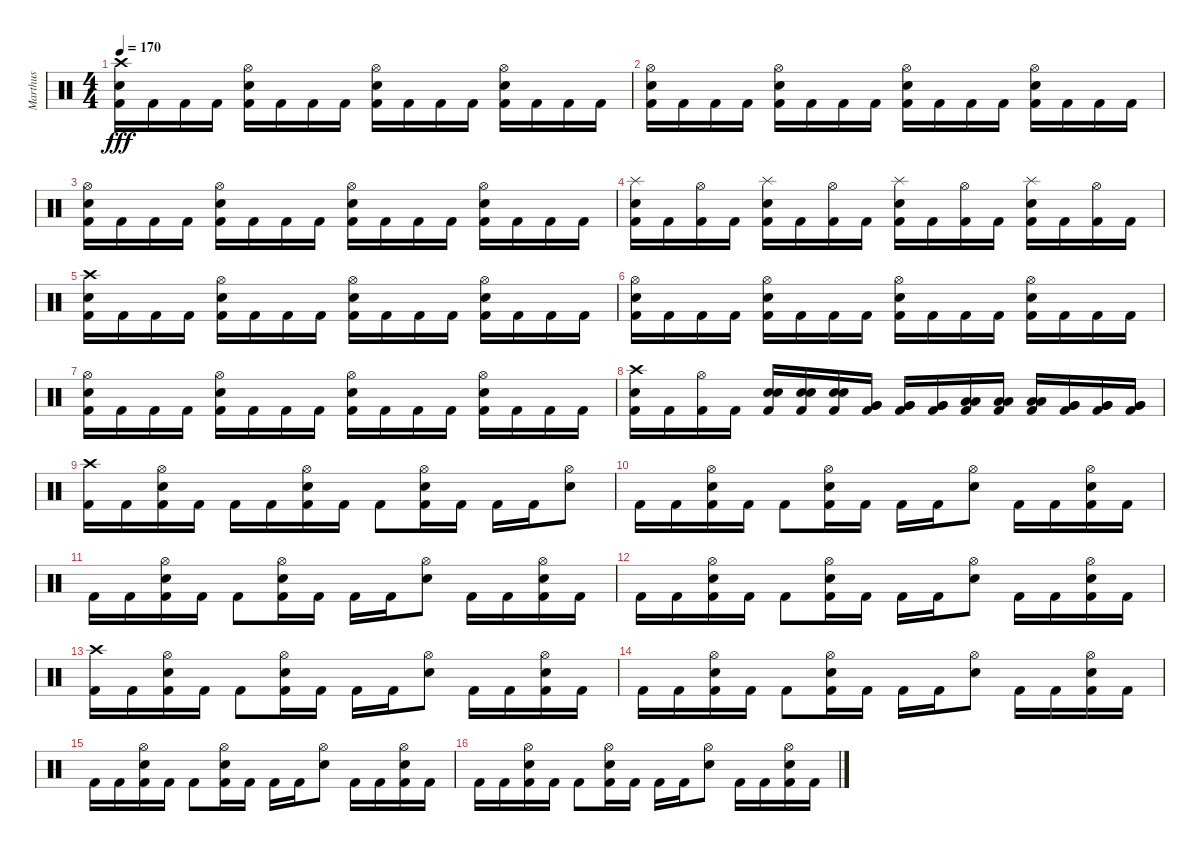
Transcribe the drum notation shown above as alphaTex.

\track ("Marthus" "Marthus") {instrument percussion}
\staff {score}
\articulation defaults
\ts (4 4)
\tempo 170
\clef neutral
\ks c
("Crash high (hit)" "Electric Snare (hit)" "Kick (hit) 2").16{dy fff} "Kick (hit) 2".16 "Kick (hit) 2".16 "Kick (hit) 2".16 ("Hi-Hat (open)" "Electric Snare (hit)" "Kick (hit) 2").16 "Kick (hit) 2".16 "Kick (hit) 2".16 "Kick (hit) 2".16 ("Hi-Hat (open)" "Electric Snare (hit)" "Kick (hit) 2").16 "Kick (hit) 2".16 "Kick (hit) 2".16 "Kick (hit) 2".16 ("Hi-Hat (open)" "Electric Snare (hit)" "Kick (hit) 2").16 "Kick (hit) 2".16 "Kick (hit) 2".16 "Kick (hit) 2".16 |
("Hi-Hat (open)" "Electric Snare (hit)" "Kick (hit) 2").16 "Kick (hit) 2".16 "Kick (hit) 2".16 "Kick (hit) 2".16 ("Hi-Hat (open)" "Electric Snare (hit)" "Kick (hit) 2").16 "Kick (hit) 2".16 "Kick (hit) 2".16 "Kick (hit) 2".16 ("Hi-Hat (open)" "Electric Snare (hit)" "Kick (hit) 2").16 "Kick (hit) 2".16 "Kick (hit) 2".16 "Kick (hit) 2".16 ("Hi-Hat (open)" "Electric Snare (hit)" "Kick (hit) 2").16 "Kick (hit) 2".16 "Kick (hit) 2".16 "Kick (hit) 2".16 |
("Hi-Hat (open)" "Electric Snare (hit)" "Kick (hit) 2").16 "Kick (hit) 2".16 "Kick (hit) 2".16 "Kick (hit) 2".16 ("Hi-Hat (open)" "Electric Snare (hit)" "Kick (hit) 2").16 "Kick (hit) 2".16 "Kick (hit) 2".16 "Kick (hit) 2".16 ("Hi-Hat (open)" "Electric Snare (hit)" "Kick (hit) 2").16 "Kick (hit) 2".16 "Kick (hit) 2".16 "Kick (hit) 2".16 ("Hi-Hat (open)" "Electric Snare (hit)" "Kick (hit) 2").16 "Kick (hit) 2".16 "Kick (hit) 2".16 "Kick (hit) 2".16 |
("Splash (hit)" "Electric Snare (hit)" "Kick (hit) 2").16 "Kick (hit) 2".16 ("Hi-Hat (open)" "Kick (hit) 2").16 "Kick (hit) 2".16 ("Splash (hit)" "Electric Snare (hit)" "Kick (hit) 2").16 "Kick (hit) 2".16 ("Hi-Hat (open)" "Kick (hit) 2").16 "Kick (hit) 2".16 ("Splash (hit)" "Electric Snare (hit)" "Kick (hit) 2").16 "Kick (hit) 2".16 ("Hi-Hat (open)" "Kick (hit) 2").16 "Kick (hit) 2".16 ("Splash (hit)" "Electric Snare (hit)" "Kick (hit) 2").16 "Kick (hit) 2".16 ("Hi-Hat (open)" "Kick (hit) 2").16 "Kick (hit) 2".16 |
("Crash high (hit)" "Electric Snare (hit)" "Kick (hit) 2").16 "Kick (hit) 2".16 "Kick (hit) 2".16 "Kick (hit) 2".16 ("Hi-Hat (open)" "Electric Snare (hit)" "Kick (hit) 2").16 "Kick (hit) 2".16 "Kick (hit) 2".16 "Kick (hit) 2".16 ("Hi-Hat (open)" "Electric Snare (hit)" "Kick (hit) 2").16 "Kick (hit) 2".16 "Kick (hit) 2".16 "Kick (hit) 2".16 ("Hi-Hat (open)" "Electric Snare (hit)" "Kick (hit) 2").16 "Kick (hit) 2".16 "Kick (hit) 2".16 "Kick (hit) 2".16 |
("Hi-Hat (open)" "Electric Snare (hit)" "Kick (hit) 2").16 "Kick (hit) 2".16 "Kick (hit) 2".16 "Kick (hit) 2".16 ("Hi-Hat (open)" "Electric Snare (hit)" "Kick (hit) 2").16 "Kick (hit) 2".16 "Kick (hit) 2".16 "Kick (hit) 2".16 ("Hi-Hat (open)" "Electric Snare (hit)" "Kick (hit) 2").16 "Kick (hit) 2".16 "Kick (hit) 2".16 "Kick (hit) 2".16 ("Hi-Hat (open)" "Electric Snare (hit)" "Kick (hit) 2").16 "Kick (hit) 2".16 "Kick (hit) 2".16 "Kick (hit) 2".16 |
("Hi-Hat (open)" "Electric Snare (hit)" "Kick (hit) 2").16 "Kick (hit) 2".16 "Kick (hit) 2".16 "Kick (hit) 2".16 ("Hi-Hat (open)" "Electric Snare (hit)" "Kick (hit) 2").16 "Kick (hit) 2".16 "Kick (hit) 2".16 "Kick (hit) 2".16 ("Hi-Hat (open)" "Electric Snare (hit)" "Kick (hit) 2").16 "Kick (hit) 2".16 "Kick (hit) 2".16 "Kick (hit) 2".16 ("Hi-Hat (open)" "Electric Snare (hit)" "Kick (hit) 2").16 "Kick (hit) 2".16 "Kick (hit) 2".16 "Kick (hit) 2".16 |
("Crash high (hit)" "Electric Snare (hit)" "Kick (hit) 2").16 "Kick (hit) 2".16 ("Hi-Hat (open)" "Kick (hit) 2").16 "Kick (hit) 2".16 ("Electric Snare (hit)" "Electric Snare (hit)" "Kick (hit) 2").16 ("Electric Snare (hit)" "Electric Snare (hit)" "Kick (hit) 2").16 ("Electric Snare (hit)" "Electric Snare (hit)" "Kick (hit) 2").16 ("Very Low Tom (hit)" "Very Low Tom (hit)" "Kick (hit) 2").16 ("Very Low Tom (hit)" "Very Low Tom (hit)" "Kick (hit) 2").16 ("Very Low Tom (hit)" "Very Low Tom (hit)" "Kick (hit) 2").16 ("Low Tom (hit)" "Low Tom (hit)" "Kick (hit) 2").16 ("Low Tom (hit)" "Low Tom (hit)" "Kick (hit) 2").16 ("Low Tom (hit)" "Low Tom (hit)" "Kick (hit) 2").16 ("Very Low Tom (hit)" "Very Low Tom (hit)" "Kick (hit) 2").16 ("Very Low Tom (hit)" "Very Low Tom (hit)" "Kick (hit) 2").16 ("Very Low Tom (hit)" "Very Low Tom (hit)" "Kick (hit) 2").16 |
("Crash high (hit)" "Kick (hit) 2").16 "Kick (hit) 2".16 ("Hi-Hat (open)" "Electric Snare (hit)" "Kick (hit) 2").16 "Kick (hit) 2".16 "Kick (hit) 2".16 "Kick (hit) 2".16 ("Hi-Hat (open)" "Electric Snare (hit)" "Kick (hit) 2").16 "Kick (hit) 2".16 "Kick (hit) 2".8 ("Hi-Hat (open)" "Electric Snare (hit)" "Kick (hit) 2").16 "Kick (hit) 2".16 "Kick (hit) 2".16 "Kick (hit) 2".16 ("Hi-Hat (open)" "Electric Snare (hit)").8 |
"Kick (hit) 2".16 "Kick (hit) 2".16 ("Hi-Hat (open)" "Electric Snare (hit)" "Kick (hit) 2").16 "Kick (hit) 2".16 "Kick (hit) 2".8 ("Hi-Hat (open)" "Electric Snare (hit)" "Kick (hit) 2").16 "Kick (hit) 2".16 "Kick (hit) 2".16 "Kick (hit) 2".16 ("Hi-Hat (open)" "Electric Snare (hit)").8 "Kick (hit) 2".16 "Kick (hit) 2".16 ("Hi-Hat (open)" "Electric Snare (hit)" "Kick (hit) 2").16 "Kick (hit) 2".16 |
"Kick (hit) 2".16 "Kick (hit) 2".16 ("Hi-Hat (open)" "Electric Snare (hit)" "Kick (hit) 2").16 "Kick (hit) 2".16 "Kick (hit) 2".8 ("Hi-Hat (open)" "Electric Snare (hit)" "Kick (hit) 2").16 "Kick (hit) 2".16 "Kick (hit) 2".16 "Kick (hit) 2".16 ("Hi-Hat (open)" "Electric Snare (hit)").8 "Kick (hit) 2".16 "Kick (hit) 2".16 ("Hi-Hat (open)" "Electric Snare (hit)" "Kick (hit) 2").16 "Kick (hit) 2".16 |
"Kick (hit) 2".16 "Kick (hit) 2".16 ("Hi-Hat (open)" "Electric Snare (hit)" "Kick (hit) 2").16 "Kick (hit) 2".16 "Kick (hit) 2".8 ("Hi-Hat (open)" "Electric Snare (hit)" "Kick (hit) 2").16 "Kick (hit) 2".16 "Kick (hit) 2".16 "Kick (hit) 2".16 ("Hi-Hat (open)" "Electric Snare (hit)").8 "Kick (hit) 2".16 "Kick (hit) 2".16 ("Hi-Hat (open)" "Electric Snare (hit)" "Kick (hit) 2").16 "Kick (hit) 2".16 |
("Crash high (hit)" "Kick (hit) 2").16 "Kick (hit) 2".16 ("Hi-Hat (open)" "Electric Snare (hit)" "Kick (hit) 2").16 "Kick (hit) 2".16 "Kick (hit) 2".8 ("Hi-Hat (open)" "Electric Snare (hit)" "Kick (hit) 2").16 "Kick (hit) 2".16 "Kick (hit) 2".16 "Kick (hit) 2".16 ("Hi-Hat (open)" "Electric Snare (hit)").8 "Kick (hit) 2".16 "Kick (hit) 2".16 ("Hi-Hat (open)" "Electric Snare (hit)" "Kick (hit) 2").16 "Kick (hit) 2".16 |
"Kick (hit) 2".16 "Kick (hit) 2".16 ("Hi-Hat (open)" "Electric Snare (hit)" "Kick (hit) 2").16 "Kick (hit) 2".16 "Kick (hit) 2".8 ("Hi-Hat (open)" "Electric Snare (hit)" "Kick (hit) 2").16 "Kick (hit) 2".16 "Kick (hit) 2".16 "Kick (hit) 2".16 ("Hi-Hat (open)" "Electric Snare (hit)").8 "Kick (hit) 2".16 "Kick (hit) 2".16 ("Hi-Hat (open)" "Electric Snare (hit)" "Kick (hit) 2").16 "Kick (hit) 2".16 |
"Kick (hit) 2".16 "Kick (hit) 2".16 ("Hi-Hat (open)" "Electric Snare (hit)" "Kick (hit) 2").16 "Kick (hit) 2".16 "Kick (hit) 2".8 ("Hi-Hat (open)" "Electric Snare (hit)" "Kick (hit) 2").16 "Kick (hit) 2".16 "Kick (hit) 2".16 "Kick (hit) 2".16 ("Hi-Hat (open)" "Electric Snare (hit)").8 "Kick (hit) 2".16 "Kick (hit) 2".16 ("Hi-Hat (open)" "Electric Snare (hit)" "Kick (hit) 2").16 "Kick (hit) 2".16 |
"Kick (hit) 2".16 "Kick (hit) 2".16 ("Hi-Hat (open)" "Electric Snare (hit)" "Kick (hit) 2").16 "Kick (hit) 2".16 "Kick (hit) 2".8 ("Hi-Hat (open)" "Electric Snare (hit)" "Kick (hit) 2").16 "Kick (hit) 2".16 "Kick (hit) 2".16 "Kick (hit) 2".16 ("Hi-Hat (open)" "Electric Snare (hit)").8 "Kick (hit) 2".16 "Kick (hit) 2".16 ("Hi-Hat (open)" "Electric Snare (hit)" "Kick (hit) 2").16 "Kick (hit) 2".16
